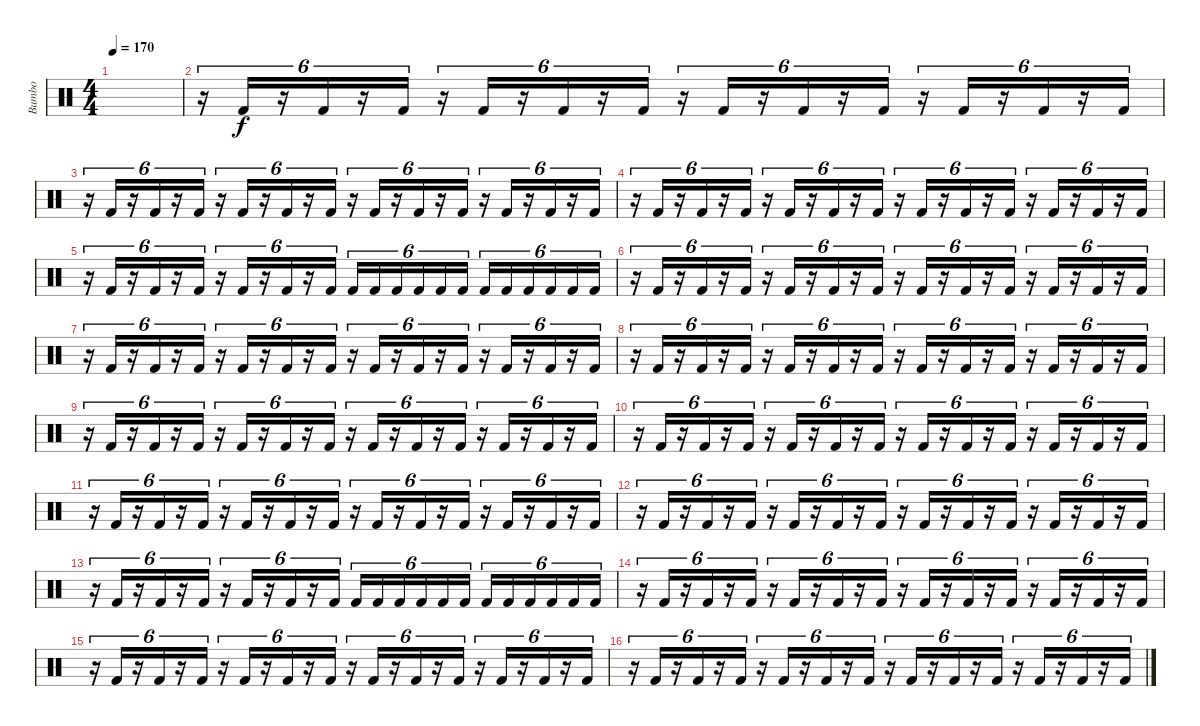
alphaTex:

\track ("Bumbo" "Bumbo") {instrument percussion}
\staff {score}
\articulation defaults
\ts (4 4)
\tempo 170
\clef neutral
\ks c
|
r.16{tu (6 4)} "Kick (hit) 2".16{tu (6 4)} r.16{tu (6 4)} "Kick (hit) 2".16{tu (6 4)} r.16{tu (6 4)} "Kick (hit) 2".16{tu (6 4)} r.16{tu (6 4)} "Kick (hit) 2".16{tu (6 4)} r.16{tu (6 4)} "Kick (hit) 2".16{tu (6 4)} r.16{tu (6 4)} "Kick (hit) 2".16{tu (6 4)} r.16{tu (6 4)} "Kick (hit) 2".16{tu (6 4)} r.16{tu (6 4)} "Kick (hit) 2".16{tu (6 4)} r.16{tu (6 4)} "Kick (hit) 2".16{tu (6 4)} r.16{tu (6 4)} "Kick (hit) 2".16{tu (6 4)} r.16{tu (6 4)} "Kick (hit) 2".16{tu (6 4)} r.16{tu (6 4)} "Kick (hit) 2".16{tu (6 4)} |
r.16{tu (6 4)} "Kick (hit) 2".16{tu (6 4)} r.16{tu (6 4)} "Kick (hit) 2".16{tu (6 4)} r.16{tu (6 4)} "Kick (hit) 2".16{tu (6 4)} r.16{tu (6 4)} "Kick (hit) 2".16{tu (6 4)} r.16{tu (6 4)} "Kick (hit) 2".16{tu (6 4)} r.16{tu (6 4)} "Kick (hit) 2".16{tu (6 4)} r.16{tu (6 4)} "Kick (hit) 2".16{tu (6 4)} r.16{tu (6 4)} "Kick (hit) 2".16{tu (6 4)} r.16{tu (6 4)} "Kick (hit) 2".16{tu (6 4)} r.16{tu (6 4)} "Kick (hit) 2".16{tu (6 4)} r.16{tu (6 4)} "Kick (hit) 2".16{tu (6 4)} r.16{tu (6 4)} "Kick (hit) 2".16{tu (6 4)} |
r.16{tu (6 4)} "Kick (hit) 2".16{tu (6 4)} r.16{tu (6 4)} "Kick (hit) 2".16{tu (6 4)} r.16{tu (6 4)} "Kick (hit) 2".16{tu (6 4)} r.16{tu (6 4)} "Kick (hit) 2".16{tu (6 4)} r.16{tu (6 4)} "Kick (hit) 2".16{tu (6 4)} r.16{tu (6 4)} "Kick (hit) 2".16{tu (6 4)} r.16{tu (6 4)} "Kick (hit) 2".16{tu (6 4)} r.16{tu (6 4)} "Kick (hit) 2".16{tu (6 4)} r.16{tu (6 4)} "Kick (hit) 2".16{tu (6 4)} r.16{tu (6 4)} "Kick (hit) 2".16{tu (6 4)} r.16{tu (6 4)} "Kick (hit) 2".16{tu (6 4)} r.16{tu (6 4)} "Kick (hit) 2".16{tu (6 4)} |
r.16{tu (6 4)} "Kick (hit) 2".16{tu (6 4)} r.16{tu (6 4)} "Kick (hit) 2".16{tu (6 4)} r.16{tu (6 4)} "Kick (hit) 2".16{tu (6 4)} r.16{tu (6 4)} "Kick (hit) 2".16{tu (6 4)} r.16{tu (6 4)} "Kick (hit) 2".16{tu (6 4)} r.16{tu (6 4)} "Kick (hit) 2".16{tu (6 4)} "Kick (hit) 2".16{tu (6 4)} "Kick (hit) 2".16{tu (6 4)} "Kick (hit) 2".16{tu (6 4)} "Kick (hit) 2".16{tu (6 4)} "Kick (hit) 2".16{tu (6 4)} "Kick (hit) 2".16{tu (6 4)} "Kick (hit) 2".16{tu (6 4)} "Kick (hit) 2".16{tu (6 4)} "Kick (hit) 2".16{tu (6 4)} "Kick (hit) 2".16{tu (6 4)} "Kick (hit) 2".16{tu (6 4)} "Kick (hit) 2".16{tu (6 4)} |
r.16{tu (6 4)} "Kick (hit) 2".16{tu (6 4)} r.16{tu (6 4)} "Kick (hit) 2".16{tu (6 4)} r.16{tu (6 4)} "Kick (hit) 2".16{tu (6 4)} r.16{tu (6 4)} "Kick (hit) 2".16{tu (6 4)} r.16{tu (6 4)} "Kick (hit) 2".16{tu (6 4)} r.16{tu (6 4)} "Kick (hit) 2".16{tu (6 4)} r.16{tu (6 4)} "Kick (hit) 2".16{tu (6 4)} r.16{tu (6 4)} "Kick (hit) 2".16{tu (6 4)} r.16{tu (6 4)} "Kick (hit) 2".16{tu (6 4)} r.16{tu (6 4)} "Kick (hit) 2".16{tu (6 4)} r.16{tu (6 4)} "Kick (hit) 2".16{tu (6 4)} r.16{tu (6 4)} "Kick (hit) 2".16{tu (6 4)} |
r.16{tu (6 4)} "Kick (hit) 2".16{tu (6 4)} r.16{tu (6 4)} "Kick (hit) 2".16{tu (6 4)} r.16{tu (6 4)} "Kick (hit) 2".16{tu (6 4)} r.16{tu (6 4)} "Kick (hit) 2".16{tu (6 4)} r.16{tu (6 4)} "Kick (hit) 2".16{tu (6 4)} r.16{tu (6 4)} "Kick (hit) 2".16{tu (6 4)} r.16{tu (6 4)} "Kick (hit) 2".16{tu (6 4)} r.16{tu (6 4)} "Kick (hit) 2".16{tu (6 4)} r.16{tu (6 4)} "Kick (hit) 2".16{tu (6 4)} r.16{tu (6 4)} "Kick (hit) 2".16{tu (6 4)} r.16{tu (6 4)} "Kick (hit) 2".16{tu (6 4)} r.16{tu (6 4)} "Kick (hit) 2".16{tu (6 4)} |
r.16{tu (6 4)} "Kick (hit) 2".16{tu (6 4)} r.16{tu (6 4)} "Kick (hit) 2".16{tu (6 4)} r.16{tu (6 4)} "Kick (hit) 2".16{tu (6 4)} r.16{tu (6 4)} "Kick (hit) 2".16{tu (6 4)} r.16{tu (6 4)} "Kick (hit) 2".16{tu (6 4)} r.16{tu (6 4)} "Kick (hit) 2".16{tu (6 4)} r.16{tu (6 4)} "Kick (hit) 2".16{tu (6 4)} r.16{tu (6 4)} "Kick (hit) 2".16{tu (6 4)} r.16{tu (6 4)} "Kick (hit) 2".16{tu (6 4)} r.16{tu (6 4)} "Kick (hit) 2".16{tu (6 4)} r.16{tu (6 4)} "Kick (hit) 2".16{tu (6 4)} r.16{tu (6 4)} "Kick (hit) 2".16{tu (6 4)} |
r.16{tu (6 4)} "Kick (hit) 2".16{tu (6 4)} r.16{tu (6 4)} "Kick (hit) 2".16{tu (6 4)} r.16{tu (6 4)} "Kick (hit) 2".16{tu (6 4)} r.16{tu (6 4)} "Kick (hit) 2".16{tu (6 4)} r.16{tu (6 4)} "Kick (hit) 2".16{tu (6 4)} r.16{tu (6 4)} "Kick (hit) 2".16{tu (6 4)} r.16{tu (6 4)} "Kick (hit) 2".16{tu (6 4)} r.16{tu (6 4)} "Kick (hit) 2".16{tu (6 4)} r.16{tu (6 4)} "Kick (hit) 2".16{tu (6 4)} r.16{tu (6 4)} "Kick (hit) 2".16{tu (6 4)} r.16{tu (6 4)} "Kick (hit) 2".16{tu (6 4)} r.16{tu (6 4)} "Kick (hit) 2".16{tu (6 4)} |
r.16{tu (6 4)} "Kick (hit) 2".16{tu (6 4)} r.16{tu (6 4)} "Kick (hit) 2".16{tu (6 4)} r.16{tu (6 4)} "Kick (hit) 2".16{tu (6 4)} r.16{tu (6 4)} "Kick (hit) 2".16{tu (6 4)} r.16{tu (6 4)} "Kick (hit) 2".16{tu (6 4)} r.16{tu (6 4)} "Kick (hit) 2".16{tu (6 4)} r.16{tu (6 4)} "Kick (hit) 2".16{tu (6 4)} r.16{tu (6 4)} "Kick (hit) 2".16{tu (6 4)} r.16{tu (6 4)} "Kick (hit) 2".16{tu (6 4)} r.16{tu (6 4)} "Kick (hit) 2".16{tu (6 4)} r.16{tu (6 4)} "Kick (hit) 2".16{tu (6 4)} r.16{tu (6 4)} "Kick (hit) 2".16{tu (6 4)} |
r.16{tu (6 4)} "Kick (hit) 2".16{tu (6 4)} r.16{tu (6 4)} "Kick (hit) 2".16{tu (6 4)} r.16{tu (6 4)} "Kick (hit) 2".16{tu (6 4)} r.16{tu (6 4)} "Kick (hit) 2".16{tu (6 4)} r.16{tu (6 4)} "Kick (hit) 2".16{tu (6 4)} r.16{tu (6 4)} "Kick (hit) 2".16{tu (6 4)} r.16{tu (6 4)} "Kick (hit) 2".16{tu (6 4)} r.16{tu (6 4)} "Kick (hit) 2".16{tu (6 4)} r.16{tu (6 4)} "Kick (hit) 2".16{tu (6 4)} r.16{tu (6 4)} "Kick (hit) 2".16{tu (6 4)} r.16{tu (6 4)} "Kick (hit) 2".16{tu (6 4)} r.16{tu (6 4)} "Kick (hit) 2".16{tu (6 4)} |
r.16{tu (6 4)} "Kick (hit) 2".16{tu (6 4)} r.16{tu (6 4)} "Kick (hit) 2".16{tu (6 4)} r.16{tu (6 4)} "Kick (hit) 2".16{tu (6 4)} r.16{tu (6 4)} "Kick (hit) 2".16{tu (6 4)} r.16{tu (6 4)} "Kick (hit) 2".16{tu (6 4)} r.16{tu (6 4)} "Kick (hit) 2".16{tu (6 4)} r.16{tu (6 4)} "Kick (hit) 2".16{tu (6 4)} r.16{tu (6 4)} "Kick (hit) 2".16{tu (6 4)} r.16{tu (6 4)} "Kick (hit) 2".16{tu (6 4)} r.16{tu (6 4)} "Kick (hit) 2".16{tu (6 4)} r.16{tu (6 4)} "Kick (hit) 2".16{tu (6 4)} r.16{tu (6 4)} "Kick (hit) 2".16{tu (6 4)} |
r.16{tu (6 4)} "Kick (hit) 2".16{tu (6 4)} r.16{tu (6 4)} "Kick (hit) 2".16{tu (6 4)} r.16{tu (6 4)} "Kick (hit) 2".16{tu (6 4)} r.16{tu (6 4)} "Kick (hit) 2".16{tu (6 4)} r.16{tu (6 4)} "Kick (hit) 2".16{tu (6 4)} r.16{tu (6 4)} "Kick (hit) 2".16{tu (6 4)} "Kick (hit) 2".16{tu (6 4)} "Kick (hit) 2".16{tu (6 4)} "Kick (hit) 2".16{tu (6 4)} "Kick (hit) 2".16{tu (6 4)} "Kick (hit) 2".16{tu (6 4)} "Kick (hit) 2".16{tu (6 4)} "Kick (hit) 2".16{tu (6 4)} "Kick (hit) 2".16{tu (6 4)} "Kick (hit) 2".16{tu (6 4)} "Kick (hit) 2".16{tu (6 4)} "Kick (hit) 2".16{tu (6 4)} "Kick (hit) 2".16{tu (6 4)} |
r.16{tu (6 4)} "Kick (hit) 2".16{tu (6 4)} r.16{tu (6 4)} "Kick (hit) 2".16{tu (6 4)} r.16{tu (6 4)} "Kick (hit) 2".16{tu (6 4)} r.16{tu (6 4)} "Kick (hit) 2".16{tu (6 4)} r.16{tu (6 4)} "Kick (hit) 2".16{tu (6 4)} r.16{tu (6 4)} "Kick (hit) 2".16{tu (6 4)} r.16{tu (6 4)} "Kick (hit) 2".16{tu (6 4)} r.16{tu (6 4)} "Kick (hit) 2".16{tu (6 4)} r.16{tu (6 4)} "Kick (hit) 2".16{tu (6 4)} r.16{tu (6 4)} "Kick (hit) 2".16{tu (6 4)} r.16{tu (6 4)} "Kick (hit) 2".16{tu (6 4)} r.16{tu (6 4)} "Kick (hit) 2".16{tu (6 4)} |
r.16{tu (6 4)} "Kick (hit) 2".16{tu (6 4)} r.16{tu (6 4)} "Kick (hit) 2".16{tu (6 4)} r.16{tu (6 4)} "Kick (hit) 2".16{tu (6 4)} r.16{tu (6 4)} "Kick (hit) 2".16{tu (6 4)} r.16{tu (6 4)} "Kick (hit) 2".16{tu (6 4)} r.16{tu (6 4)} "Kick (hit) 2".16{tu (6 4)} r.16{tu (6 4)} "Kick (hit) 2".16{tu (6 4)} r.16{tu (6 4)} "Kick (hit) 2".16{tu (6 4)} r.16{tu (6 4)} "Kick (hit) 2".16{tu (6 4)} r.16{tu (6 4)} "Kick (hit) 2".16{tu (6 4)} r.16{tu (6 4)} "Kick (hit) 2".16{tu (6 4)} r.16{tu (6 4)} "Kick (hit) 2".16{tu (6 4)} |
r.16{tu (6 4)} "Kick (hit) 2".16{tu (6 4)} r.16{tu (6 4)} "Kick (hit) 2".16{tu (6 4)} r.16{tu (6 4)} "Kick (hit) 2".16{tu (6 4)} r.16{tu (6 4)} "Kick (hit) 2".16{tu (6 4)} r.16{tu (6 4)} "Kick (hit) 2".16{tu (6 4)} r.16{tu (6 4)} "Kick (hit) 2".16{tu (6 4)} r.16{tu (6 4)} "Kick (hit) 2".16{tu (6 4)} r.16{tu (6 4)} "Kick (hit) 2".16{tu (6 4)} r.16{tu (6 4)} "Kick (hit) 2".16{tu (6 4)} r.16{tu (6 4)} "Kick (hit) 2".16{tu (6 4)} r.16{tu (6 4)} "Kick (hit) 2".16{tu (6 4)} r.16{tu (6 4)} "Kick (hit) 2".16{tu (6 4)}
